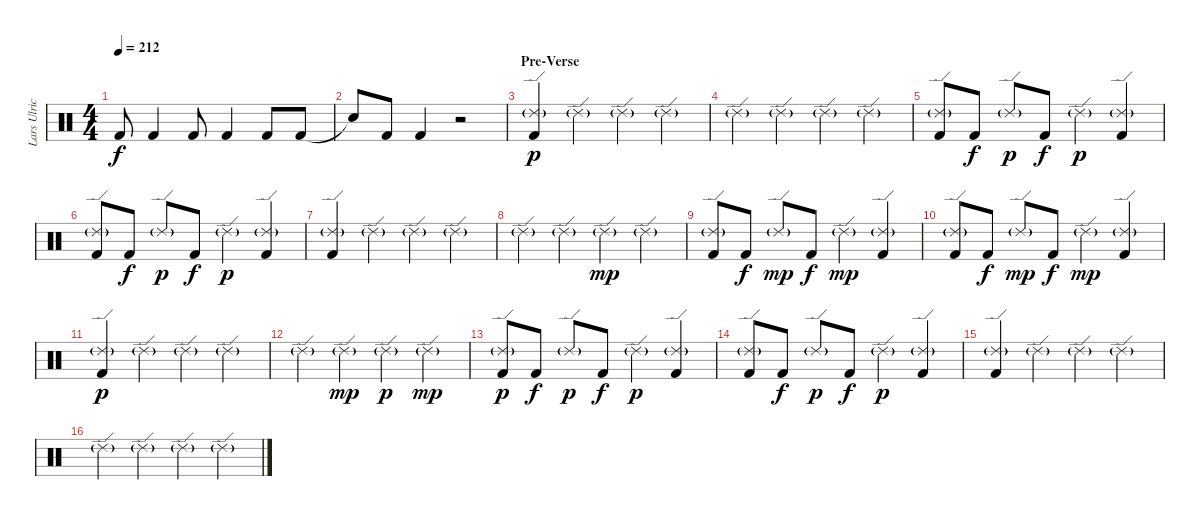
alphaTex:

\track ("Lars Ulrich" "Lars Ulric") {instrument percussion}
\staff {score}
\articulation defaults
\ts (4 4)
\tempo 212
\clef neutral
\ks c "Kick (hit) 2".8{dy f} "Kick (hit) 2".4 "Kick (hit) 2".8 "Kick (hit) 2".4 "Kick (hit) 2".8 "Kick (hit) 2".8
|
"Snare (hit)"{t}.8 "Kick (hit) 2".8 "Kick (hit) 2".4 r.2 |
\section ("" "Pre-Verse")
("Ride (edge) 2"{g} "Kick (hit) 2").4{dy p} "Ride (edge) 2"{g}.4 "Ride (edge) 2"{g}.4 "Ride (edge) 2"{g}.4 |
"Ride (edge) 2"{g}.4 "Ride (edge) 2"{g}.4 "Ride (edge) 2"{g}.4 "Ride (edge) 2"{g}.4 |
("Ride (edge) 2"{g} "Kick (hit) 2").8 "Kick (hit) 2".8{dy f} "Ride (edge) 2"{g}.8{dy p} "Kick (hit) 2".8{dy f} "Ride (edge) 2"{g}.4{dy p} ("Ride (edge) 2"{g} "Kick (hit) 2").4 |
("Ride (edge) 2"{g} "Kick (hit) 2").8 "Kick (hit) 2".8{dy f} "Ride (edge) 2"{g}.8{dy p} "Kick (hit) 2".8{dy f} "Ride (edge) 2"{g}.4{dy p} ("Ride (edge) 2"{g} "Kick (hit) 2").4 |
("Ride (edge) 2"{g} "Kick (hit) 2").4 "Ride (edge) 2"{g}.4 "Ride (edge) 2"{g}.4 "Ride (edge) 2"{g}.4 |
"Ride (edge) 2"{g}.4 "Ride (edge) 2"{g}.4 "Ride (edge) 2"{g}.4{dy mp} "Ride (edge) 2"{g}.4 |
("Ride (edge) 2"{g} "Kick (hit) 2").8 "Kick (hit) 2".8{dy f} "Ride (edge) 2"{g}.8{dy mp} "Kick (hit) 2".8{dy f} "Ride (edge) 2"{g}.4{dy mp} ("Ride (edge) 2"{g} "Kick (hit) 2").4 |
("Ride (edge) 2"{g} "Kick (hit) 2").8 "Kick (hit) 2".8{dy f} "Ride (edge) 2"{g}.8{dy mp} "Kick (hit) 2".8{dy f} "Ride (edge) 2"{g}.4{dy mp} ("Ride (edge) 2"{g} "Kick (hit) 2").4 |
("Ride (edge) 2"{g} "Kick (hit) 2").4{dy p} "Ride (edge) 2"{g}.4 "Ride (edge) 2"{g}.4 "Ride (edge) 2"{g}.4 |
"Ride (edge) 2"{g}.4 "Ride (edge) 2"{g}.4{dy mp} "Ride (edge) 2"{g}.4{dy p} "Ride (edge) 2"{g}.4{dy mp} |
("Ride (edge) 2"{g} "Kick (hit) 2").8{dy p} "Kick (hit) 2".8{dy f} "Ride (edge) 2"{g}.8{dy p} "Kick (hit) 2".8{dy f} "Ride (edge) 2"{g}.4{dy p} ("Ride (edge) 2"{g} "Kick (hit) 2").4 |
("Ride (edge) 2"{g} "Kick (hit) 2").8 "Kick (hit) 2".8{dy f} "Ride (edge) 2"{g}.8{dy p} "Kick (hit) 2".8{dy f} "Ride (edge) 2"{g}.4{dy p} ("Ride (edge) 2"{g} "Kick (hit) 2").4 |
("Ride (edge) 2"{g} "Kick (hit) 2").4 "Ride (edge) 2"{g}.4 "Ride (edge) 2"{g}.4 "Ride (edge) 2"{g}.4 |
"Ride (edge) 2"{g}.4 "Ride (edge) 2"{g}.4 "Ride (edge) 2"{g}.4 "Ride (edge) 2"{g}.4
